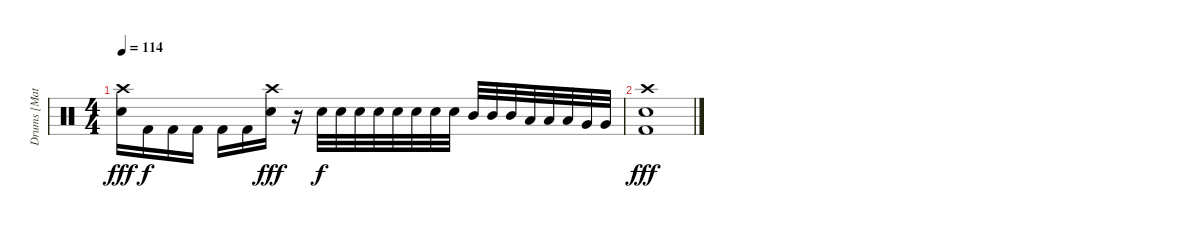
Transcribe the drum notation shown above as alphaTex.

\track ("Drums [Matt]" "Drums [Mat") {instrument percussion}
\staff {score}
\articulation defaults
\ts (4 4)
\tempo 114
\clef neutral
\ks c
("Snare (hit) 2" "Crash high (hit)").16{dy fff} "Kick (hit) 2".16{dy f} "Kick (hit) 2".16 "Kick (hit) 2".16 "Kick (hit) 2".16 "Kick (hit) 2".16 ("Snare (hit) 2" "Crash high (hit)").16{dy fff} r.16 "Snare (hit) 2".32{dy f} "Snare (hit) 2".32 "Snare (hit) 2".32 "Snare (hit) 2".32 "Snare (hit) 2".32 "Snare (hit) 2".32 "Snare (hit) 2".32 "Snare (hit) 2".32 "Mid Tom (hit)".32 "Mid Tom (hit)".32 "Mid Tom (hit)".32 "Low Tom (hit)".32 "Low Tom (hit)".32 "Low Tom (hit)".32 "Very Low Tom (hit)".32 "Very Low Tom (hit)".32 |
("Kick (hit) 2" "Snare (hit) 2" "Crash high (hit)").1{dy fff}
